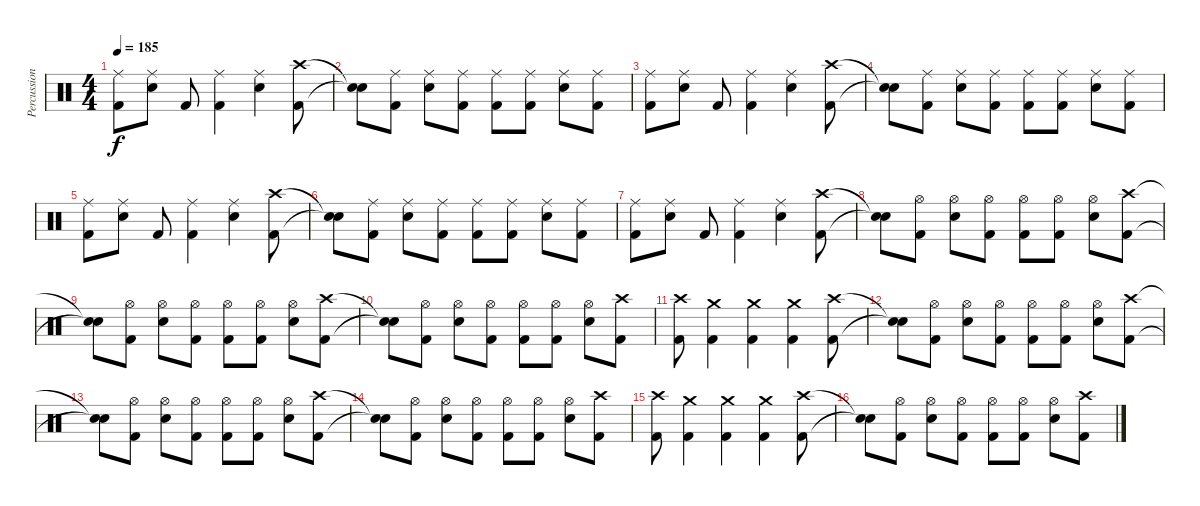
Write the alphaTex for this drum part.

\track ("Percussion" "Percussion") {instrument percussion}
\staff {score}
\articulation defaults
\ts (4 4)
\tempo 185
\clef neutral
\ks c
("Ride (middle)" "Kick (hit) 2").8{dy f} ("Ride (middle)" "Electric Snare (hit)").8 "Kick (hit) 2".8 ("Ride (middle)" "Kick (hit) 2").4 ("Ride (middle)" "Electric Snare (hit)").4 ("Crash high (hit)" "Kick (hit) 2").8 |
("Snare (hit)"{t} "Snare (hit)"{t}).8 ("Ride (middle)" "Kick (hit) 2").8 ("Ride (middle)" "Electric Snare (hit)").8 ("Ride (middle)" "Kick (hit) 2").8 ("Ride (middle)" "Kick (hit) 2").8 ("Ride (middle)" "Kick (hit) 2").8 ("Ride (middle)" "Electric Snare (hit)").8 ("Ride (middle)" "Kick (hit) 2").8 |
("Ride (middle)" "Kick (hit) 2").8 ("Ride (middle)" "Electric Snare (hit)").8 "Kick (hit) 2".8 ("Ride (middle)" "Kick (hit) 2").4 ("Ride (middle)" "Electric Snare (hit)").4 ("Crash high (hit)" "Kick (hit) 2").8 |
("Snare (hit)"{t} "Snare (hit)"{t}).8 ("Ride (middle)" "Kick (hit) 2").8 ("Ride (middle)" "Electric Snare (hit)").8 ("Ride (middle)" "Kick (hit) 2").8 ("Ride (middle)" "Kick (hit) 2").8 ("Ride (middle)" "Kick (hit) 2").8 ("Ride (middle)" "Electric Snare (hit)").8 ("Ride (middle)" "Kick (hit) 2").8 |
("Ride (middle)" "Kick (hit) 2").8 ("Ride (middle)" "Electric Snare (hit)").8 "Kick (hit) 2".8 ("Ride (middle)" "Kick (hit) 2").4 ("Ride (middle)" "Electric Snare (hit)").4 ("Crash high (hit)" "Kick (hit) 2").8 |
("Snare (hit)"{t} "Snare (hit)"{t}).8 ("Ride (middle)" "Kick (hit) 2").8 ("Ride (middle)" "Electric Snare (hit)").8 ("Ride (middle)" "Kick (hit) 2").8 ("Ride (middle)" "Kick (hit) 2").8 ("Ride (middle)" "Kick (hit) 2").8 ("Ride (middle)" "Electric Snare (hit)").8 ("Ride (middle)" "Kick (hit) 2").8 |
("Ride (middle)" "Kick (hit) 2").8 ("Ride (middle)" "Electric Snare (hit)").8 "Kick (hit) 2".8 ("Ride (middle)" "Kick (hit) 2").4 ("Ride (middle)" "Electric Snare (hit)").4 ("Crash high (hit)" "Kick (hit) 2").8 |
("Snare (hit)"{t} "Snare (hit)"{t}).8 ("Hi-Hat (open)" "Kick (hit) 2").8 ("Hi-Hat (open)" "Electric Snare (hit)").8 ("Hi-Hat (open)" "Kick (hit) 2").8 ("Hi-Hat (open)" "Kick (hit) 2").8 ("Hi-Hat (open)" "Kick (hit) 2").8 ("Hi-Hat (open)" "Electric Snare (hit)").8 ("Crash high (hit)" "Kick (hit) 2").8 |
("Snare (hit)"{t} "Snare (hit)"{t}).8 ("Hi-Hat (open)" "Kick (hit) 2").8 ("Hi-Hat (open)" "Electric Snare (hit)").8 ("Hi-Hat (open)" "Kick (hit) 2").8 ("Hi-Hat (open)" "Kick (hit) 2").8 ("Hi-Hat (open)" "Kick (hit) 2").8 ("Hi-Hat (open)" "Electric Snare (hit)").8 ("Crash high (hit)" "Kick (hit) 2").8 |
("Snare (hit)"{t} "Snare (hit)"{t}).8 ("Hi-Hat (open)" "Kick (hit) 2").8 ("Hi-Hat (open)" "Electric Snare (hit)").8 ("Hi-Hat (open)" "Kick (hit) 2").8 ("Hi-Hat (open)" "Kick (hit) 2").8 ("Hi-Hat (open)" "Kick (hit) 2").8 ("Hi-Hat (open)" "Electric Snare (hit)").8 ("Crash high (hit)" "Kick (hit) 2").8 |
("Crash high (hit)" "Kick (hit) 2").8 ("Crash medium (hit)" "Kick (hit) 2").4 ("Crash medium (hit)" "Kick (hit) 2").4 ("Crash medium (hit)" "Kick (hit) 2").4 ("Crash high (hit)" "Kick (hit) 2").8 |
("Snare (hit)"{t} "Snare (hit)"{t}).8 ("Hi-Hat (open)" "Kick (hit) 2").8 ("Hi-Hat (open)" "Electric Snare (hit)").8 ("Hi-Hat (open)" "Kick (hit) 2").8 ("Hi-Hat (open)" "Kick (hit) 2").8 ("Hi-Hat (open)" "Kick (hit) 2").8 ("Hi-Hat (open)" "Electric Snare (hit)").8 ("Crash high (hit)" "Kick (hit) 2").8 |
("Snare (hit)"{t} "Snare (hit)"{t}).8 ("Hi-Hat (open)" "Kick (hit) 2").8 ("Hi-Hat (open)" "Electric Snare (hit)").8 ("Hi-Hat (open)" "Kick (hit) 2").8 ("Hi-Hat (open)" "Kick (hit) 2").8 ("Hi-Hat (open)" "Kick (hit) 2").8 ("Hi-Hat (open)" "Electric Snare (hit)").8 ("Crash high (hit)" "Kick (hit) 2").8 |
("Snare (hit)"{t} "Snare (hit)"{t}).8 ("Hi-Hat (open)" "Kick (hit) 2").8 ("Hi-Hat (open)" "Electric Snare (hit)").8 ("Hi-Hat (open)" "Kick (hit) 2").8 ("Hi-Hat (open)" "Kick (hit) 2").8 ("Hi-Hat (open)" "Kick (hit) 2").8 ("Hi-Hat (open)" "Electric Snare (hit)").8 ("Crash high (hit)" "Kick (hit) 2").8 |
("Crash high (hit)" "Kick (hit) 2").8 ("Crash medium (hit)" "Kick (hit) 2").4 ("Crash medium (hit)" "Kick (hit) 2").4 ("Crash medium (hit)" "Kick (hit) 2").4 ("Crash high (hit)" "Kick (hit) 2").8 |
("Snare (hit)"{t} "Snare (hit)"{t}).8 ("Hi-Hat (open)" "Kick (hit) 2").8 ("Hi-Hat (open)" "Electric Snare (hit)").8 ("Hi-Hat (open)" "Kick (hit) 2").8 ("Hi-Hat (open)" "Kick (hit) 2").8 ("Hi-Hat (open)" "Kick (hit) 2").8 ("Hi-Hat (open)" "Electric Snare (hit)").8 ("Crash high (hit)" "Kick (hit) 2").8
